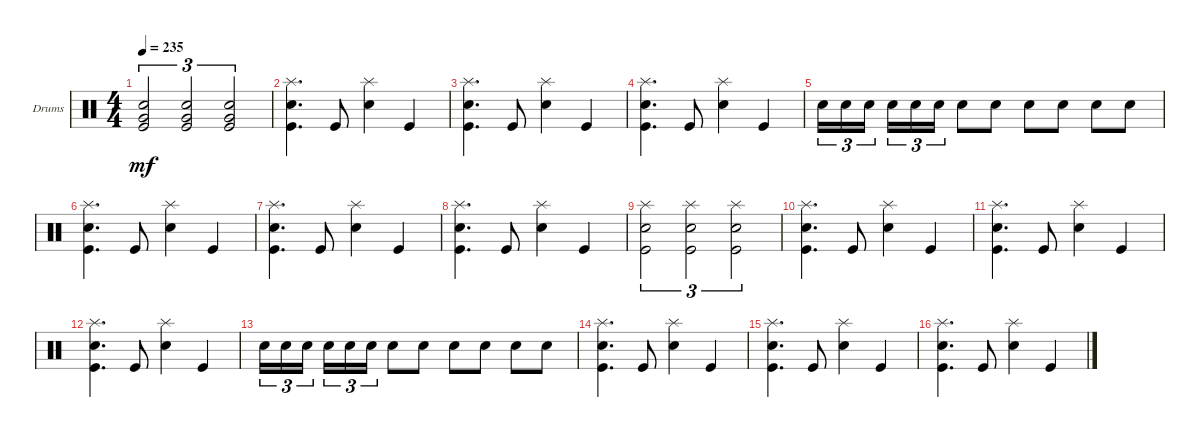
\defaultSystemsLayout 4
\bracketExtendMode groupsimilarinstruments
\firstSystemTrackNameOrientation horizontal
\otherSystemsTrackNameOrientation horizontal
\track ("Drumkit" "Drums") {instrument percussion}
\staff {score}
\articulation defaults
\ts (4 4)
\tempo 235
\clef neutral
\ks c
("Kick (hit)" "Very Low Tom (hit)" "Snare (hit) 2").2{tu (3 2) dy mf} ("Kick (hit)" "Very Low Tom (hit)" "Snare (hit) 2").2{tu (3 2)} ("Kick (hit)" "Very Low Tom (hit)" "Snare (hit) 2").2{tu (3 2)} |
("Kick (hit)" "Snare (hit) 2" "Splash (hit)").4{d} "Kick (hit)".8 ("Snare (hit) 2" "Splash (hit)").4 "Kick (hit)".4 |
("Kick (hit)" "Snare (hit) 2" "Splash (hit)").4{d} "Kick (hit)".8 ("Snare (hit) 2" "Splash (hit)").4 "Kick (hit)".4 |
("Kick (hit)" "Snare (hit) 2" "Splash (hit)").4{d} "Kick (hit)".8 ("Snare (hit) 2" "Splash (hit)").4 "Kick (hit)".4 |
"Snare (hit) 2".16{tu (3 2)} "Snare (hit) 2".16{tu (3 2)} "Snare (hit) 2".16{tu (3 2)} "Snare (hit) 2".16{tu (3 2)} "Snare (hit) 2".16{tu (3 2)} "Snare (hit) 2".16{tu (3 2)} "Snare (hit) 2".8 "Snare (hit) 2".8 "Snare (hit) 2".8 "Snare (hit) 2".8 "Snare (hit) 2".8 "Snare (hit) 2".8 |
("Kick (hit)" "Snare (hit) 2" "Splash (hit)").4{d} "Kick (hit)".8 ("Snare (hit) 2" "Splash (hit)").4 "Kick (hit)".4 |
("Kick (hit)" "Snare (hit) 2" "Splash (hit)").4{d} "Kick (hit)".8 ("Snare (hit) 2" "Splash (hit)").4 "Kick (hit)".4 |
("Kick (hit)" "Snare (hit) 2" "Splash (hit)").4{d} "Kick (hit)".8 ("Snare (hit) 2" "Splash (hit)").4 "Kick (hit)".4 |
("Kick (hit)" "Snare (hit) 2" "Splash (hit)").2{tu (3 2)} ("Kick (hit)" "Snare (hit) 2" "Splash (hit)").2{tu (3 2)} ("Kick (hit)" "Snare (hit) 2" "Splash (hit)").2{tu (3 2)} |
("Kick (hit)" "Snare (hit) 2" "Splash (hit)").4{d} "Kick (hit)".8 ("Snare (hit) 2" "Splash (hit)").4 "Kick (hit)".4 |
("Kick (hit)" "Snare (hit) 2" "Splash (hit)").4{d} "Kick (hit)".8 ("Snare (hit) 2" "Splash (hit)").4 "Kick (hit)".4 |
("Kick (hit)" "Snare (hit) 2" "Splash (hit)").4{d} "Kick (hit)".8 ("Snare (hit) 2" "Splash (hit)").4 "Kick (hit)".4 |
"Snare (hit) 2".16{tu (3 2)} "Snare (hit) 2".16{tu (3 2)} "Snare (hit) 2".16{tu (3 2)} "Snare (hit) 2".16{tu (3 2)} "Snare (hit) 2".16{tu (3 2)} "Snare (hit) 2".16{tu (3 2)} "Snare (hit) 2".8 "Snare (hit) 2".8 "Snare (hit) 2".8 "Snare (hit) 2".8 "Snare (hit) 2".8 "Snare (hit) 2".8 |
("Kick (hit)" "Snare (hit) 2" "Splash (hit)").4{d} "Kick (hit)".8 ("Snare (hit) 2" "Splash (hit)").4 "Kick (hit)".4 |
("Kick (hit)" "Snare (hit) 2" "Splash (hit)").4{d} "Kick (hit)".8 ("Snare (hit) 2" "Splash (hit)").4 "Kick (hit)".4 |
("Kick (hit)" "Snare (hit) 2" "Splash (hit)").4{d} "Kick (hit)".8 ("Snare (hit) 2" "Splash (hit)").4 "Kick (hit)".4
